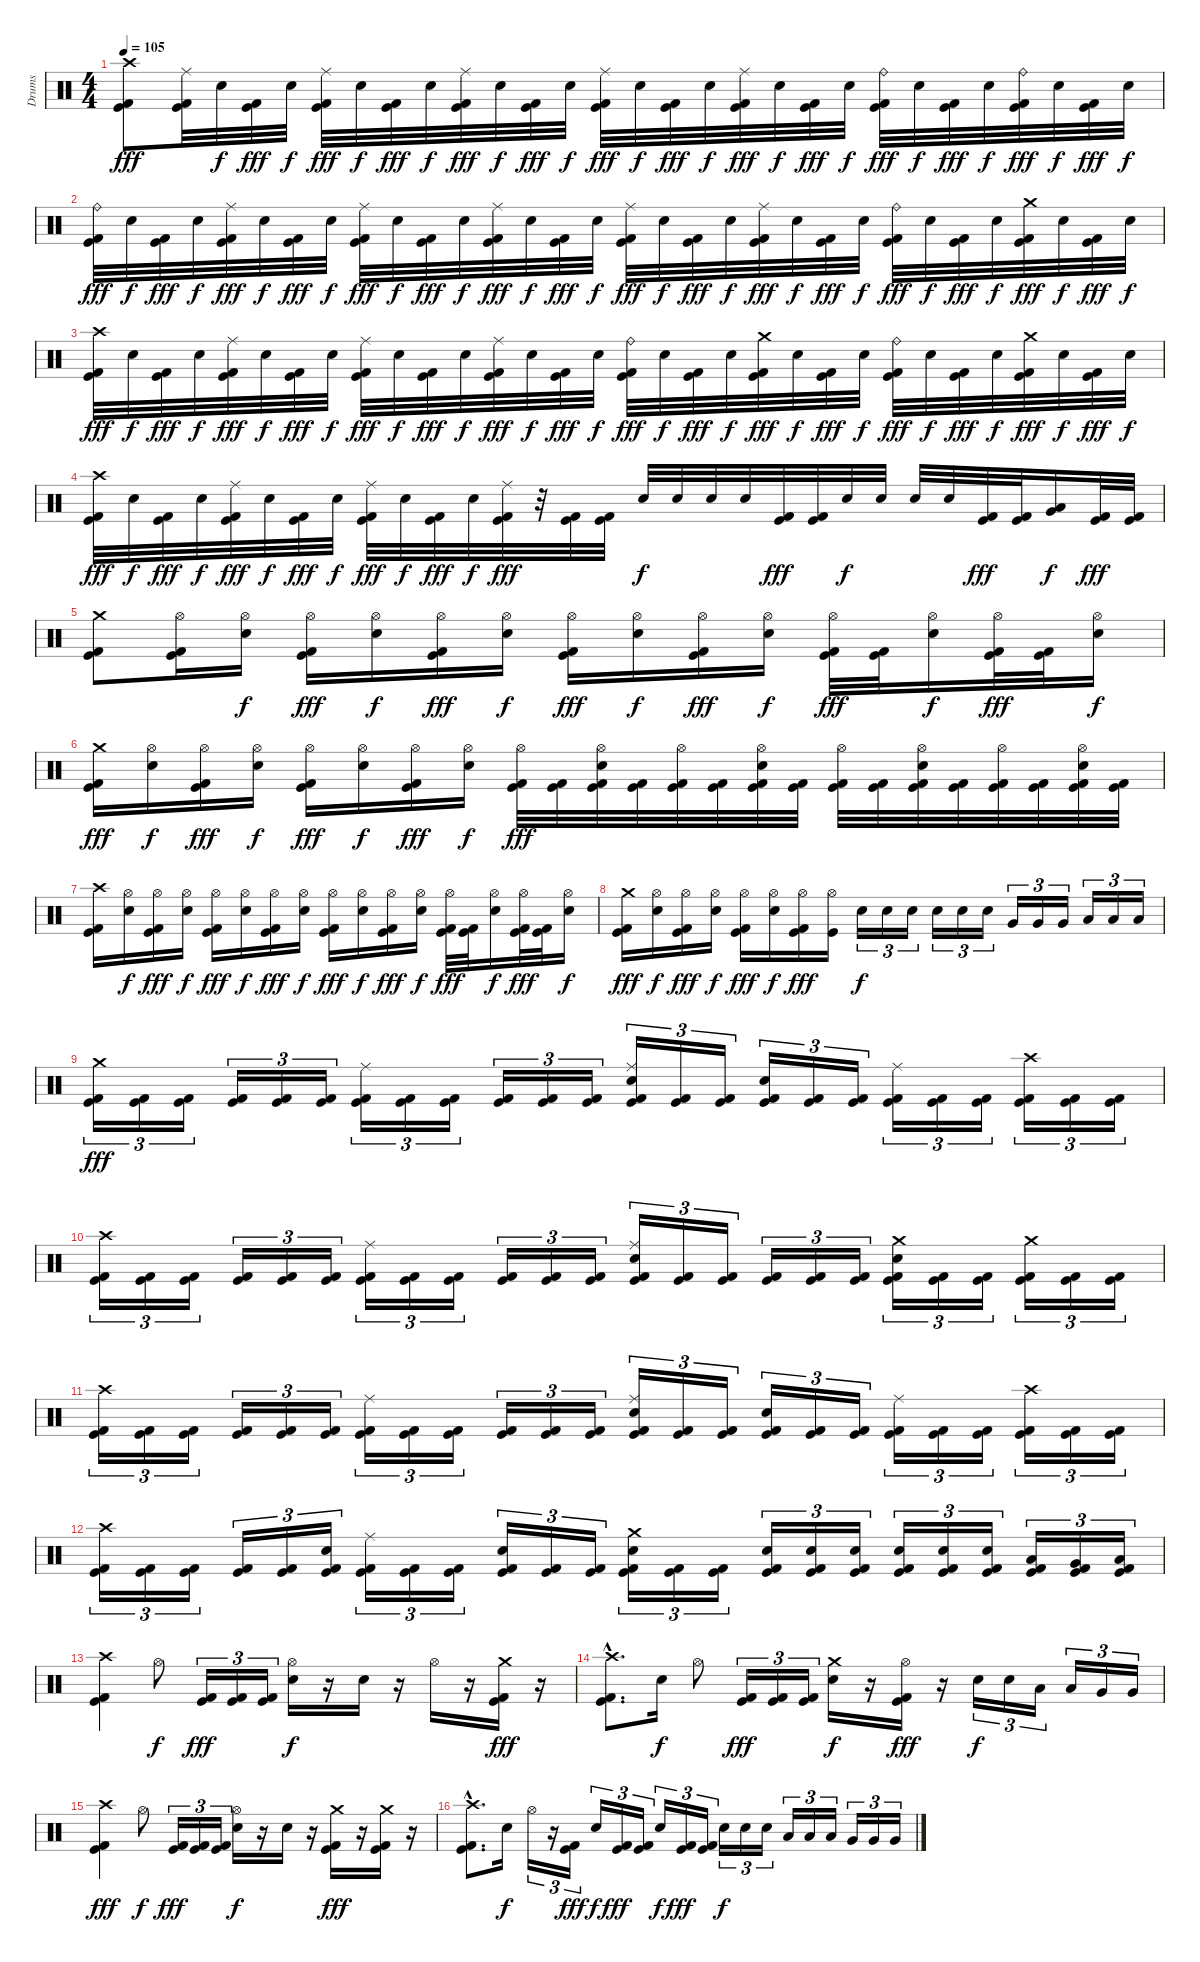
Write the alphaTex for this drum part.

\track ("Drums" "Drums") {instrument percussion}
\staff {score}
\articulation defaults
\ts (4 4)
\tempo 105
\clef neutral
\ks c
("Crash high (hit)" "Kick (hit)" "Kick (hit) 2").8{dy fff} ("Ride (middle)" "Kick (hit)" "Kick (hit) 2").32 "Electric Snare (hit)".32{dy f} ("Kick (hit)" "Kick (hit) 2").32{dy fff} "Electric Snare (hit)".32{dy f} ("Ride (middle)" "Kick (hit)" "Kick (hit) 2").32{dy fff} "Electric Snare (hit)".32{dy f} ("Kick (hit)" "Kick (hit) 2").32{dy fff} "Electric Snare (hit)".32{dy f} ("Ride (middle)" "Kick (hit)" "Kick (hit) 2").32{dy fff} "Electric Snare (hit)".32{dy f} ("Kick (hit)" "Kick (hit) 2").32{dy fff} "Electric Snare (hit)".32{dy f} ("Ride (middle)" "Kick (hit)" "Kick (hit) 2").32{dy fff} "Electric Snare (hit)".32{dy f} ("Kick (hit)" "Kick (hit) 2").32{dy fff} "Electric Snare (hit)".32{dy f} ("Ride (middle)" "Kick (hit)" "Kick (hit) 2").32{dy fff} "Electric Snare (hit)".32{dy f} ("Kick (hit)" "Kick (hit) 2").32{dy fff} "Electric Snare (hit)".32{dy f} ("Ride (bell)" "Kick (hit)" "Kick (hit) 2").32{dy fff} "Electric Snare (hit)".32{dy f} ("Kick (hit)" "Kick (hit) 2").32{dy fff} "Electric Snare (hit)".32{dy f} ("Ride (bell)" "Kick (hit)" "Kick (hit) 2").32{dy fff} "Electric Snare (hit)".32{dy f} ("Kick (hit)" "Kick (hit) 2").32{dy fff} "Electric Snare (hit)".32{dy f} |
("Ride (bell)" "Kick (hit)" "Kick (hit) 2").32{dy fff} "Electric Snare (hit)".32{dy f} ("Kick (hit)" "Kick (hit) 2").32{dy fff} "Electric Snare (hit)".32{dy f} ("Ride (middle)" "Kick (hit)" "Kick (hit) 2").32{dy fff} "Electric Snare (hit)".32{dy f} ("Kick (hit)" "Kick (hit) 2").32{dy fff} "Electric Snare (hit)".32{dy f} ("Ride (middle)" "Kick (hit)" "Kick (hit) 2").32{dy fff} "Electric Snare (hit)".32{dy f} ("Kick (hit)" "Kick (hit) 2").32{dy fff} "Electric Snare (hit)".32{dy f} ("Ride (middle)" "Kick (hit)" "Kick (hit) 2").32{dy fff} "Electric Snare (hit)".32{dy f} ("Kick (hit)" "Kick (hit) 2").32{dy fff} "Electric Snare (hit)".32{dy f} ("Ride (middle)" "Kick (hit)" "Kick (hit) 2").32{dy fff} "Electric Snare (hit)".32{dy f} ("Kick (hit)" "Kick (hit) 2").32{dy fff} "Electric Snare (hit)".32{dy f} ("Ride (middle)" "Kick (hit)" "Kick (hit) 2").32{dy fff} "Electric Snare (hit)".32{dy f} ("Kick (hit)" "Kick (hit) 2").32{dy fff} "Electric Snare (hit)".32{dy f} ("Ride (bell)" "Kick (hit)" "Kick (hit) 2").32{dy fff} "Electric Snare (hit)".32{dy f} ("Kick (hit)" "Kick (hit) 2").32{dy fff} "Electric Snare (hit)".32{dy f} ("Crash medium (hit)" "Kick (hit)" "Kick (hit) 2").32{dy fff} "Electric Snare (hit)".32{dy f} ("Kick (hit)" "Kick (hit) 2").32{dy fff} "Electric Snare (hit)".32{dy f} |
("Crash high (hit)" "Kick (hit)" "Kick (hit) 2").32{dy fff} "Electric Snare (hit)".32{dy f} ("Kick (hit)" "Kick (hit) 2").32{dy fff} "Electric Snare (hit)".32{dy f} ("Ride (middle)" "Kick (hit)" "Kick (hit) 2").32{dy fff} "Electric Snare (hit)".32{dy f} ("Kick (hit)" "Kick (hit) 2").32{dy fff} "Electric Snare (hit)".32{dy f} ("Ride (middle)" "Kick (hit)" "Kick (hit) 2").32{dy fff} "Electric Snare (hit)".32{dy f} ("Kick (hit)" "Kick (hit) 2").32{dy fff} "Electric Snare (hit)".32{dy f} ("Ride (middle)" "Kick (hit)" "Kick (hit) 2").32{dy fff} "Electric Snare (hit)".32{dy f} ("Kick (hit)" "Kick (hit) 2").32{dy fff} "Electric Snare (hit)".32{dy f} ("Ride (bell)" "Kick (hit)" "Kick (hit) 2").32{dy fff} "Electric Snare (hit)".32{dy f} ("Kick (hit)" "Kick (hit) 2").32{dy fff} "Electric Snare (hit)".32{dy f} ("Crash medium (hit)" "Kick (hit)" "Kick (hit) 2").32{dy fff} "Electric Snare (hit)".32{dy f} ("Kick (hit)" "Kick (hit) 2").32{dy fff} "Electric Snare (hit)".32{dy f} ("Ride (bell)" "Kick (hit)" "Kick (hit) 2").32{dy fff} "Electric Snare (hit)".32{dy f} ("Kick (hit)" "Kick (hit) 2").32{dy fff} "Electric Snare (hit)".32{dy f} ("Crash medium (hit)" "Kick (hit)" "Kick (hit) 2").32{dy fff} "Electric Snare (hit)".32{dy f} ("Kick (hit)" "Kick (hit) 2").32{dy fff} "Electric Snare (hit)".32{dy f} |
("Crash high (hit)" "Kick (hit)" "Kick (hit) 2").32{dy fff} "Electric Snare (hit)".32{dy f} ("Kick (hit)" "Kick (hit) 2").32{dy fff} "Electric Snare (hit)".32{dy f} ("Ride (middle)" "Kick (hit)" "Kick (hit) 2").32{dy fff} "Electric Snare (hit)".32{dy f} ("Kick (hit)" "Kick (hit) 2").32{dy fff} "Electric Snare (hit)".32{dy f} ("Ride (middle)" "Kick (hit)" "Kick (hit) 2").32{dy fff} "Electric Snare (hit)".32{dy f} ("Kick (hit)" "Kick (hit) 2").32{dy fff} "Electric Snare (hit)".32{dy f} ("Ride (middle)" "Kick (hit)" "Kick (hit) 2").32{dy fff} r.32 ("Kick (hit)" "Kick (hit) 2").32 ("Kick (hit)" "Kick (hit) 2").32 "Electric Snare (hit)".32{dy f} "Electric Snare (hit)".32 "Electric Snare (hit)".32 "Electric Snare (hit)".32 ("Kick (hit)" "Kick (hit) 2").32{dy fff} ("Kick (hit)" "Kick (hit) 2").32 "Electric Snare (hit)".32{dy f} "Electric Snare (hit)".32 "Electric Snare (hit)".32 "Electric Snare (hit)".32 ("Kick (hit)" "Kick (hit) 2").32{dy fff} ("Kick (hit)" "Kick (hit) 2").32 ("Very Low Tom (hit)" "Low Floor Tom (hit)").16{bu 60 dy f} ("Kick (hit)" "Kick (hit) 2").32{dy fff} ("Kick (hit)" "Kick (hit) 2").32 |
("Crash medium (hit)" "Kick (hit)" "Kick (hit) 2").8 ("Hi-Hat (open)" "Kick (hit)" "Kick (hit) 2").16 ("Hi-Hat (open)" "Electric Snare (hit)").16{dy f} ("Hi-Hat (open)" "Kick (hit)" "Kick (hit) 2").16{dy fff} ("Hi-Hat (open)" "Electric Snare (hit)").16{dy f} ("Hi-Hat (open)" "Kick (hit)" "Kick (hit) 2").16{dy fff} ("Hi-Hat (open)" "Electric Snare (hit)").16{dy f} ("Hi-Hat (open)" "Kick (hit)" "Kick (hit) 2").16{dy fff} ("Hi-Hat (open)" "Electric Snare (hit)").16{dy f} ("Hi-Hat (open)" "Kick (hit)" "Kick (hit) 2").16{dy fff} ("Hi-Hat (open)" "Electric Snare (hit)").16{dy f} ("Hi-Hat (open)" "Kick (hit)" "Kick (hit) 2").32{dy fff} ("Kick (hit)" "Kick (hit) 2").32 ("Hi-Hat (open)" "Electric Snare (hit)").16{dy f} ("Hi-Hat (open)" "Kick (hit)" "Kick (hit) 2").32{dy fff} ("Kick (hit)" "Kick (hit) 2").32 ("Hi-Hat (open)" "Electric Snare (hit)").16{dy f} |
("Crash medium (hit)" "Kick (hit)" "Kick (hit) 2").16{dy fff} ("Hi-Hat (open)" "Electric Snare (hit)").16{dy f} ("Hi-Hat (open)" "Kick (hit)" "Kick (hit) 2").16{dy fff} ("Hi-Hat (open)" "Electric Snare (hit)").16{dy f} ("Hi-Hat (open)" "Kick (hit)" "Kick (hit) 2").16{dy fff} ("Hi-Hat (open)" "Electric Snare (hit)").16{dy f} ("Hi-Hat (open)" "Kick (hit)" "Kick (hit) 2").16{dy fff} ("Hi-Hat (open)" "Electric Snare (hit)").16{dy f} ("Hi-Hat (open)" "Kick (hit)" "Kick (hit) 2").32{dy fff} ("Kick (hit)" "Kick (hit) 2").32 ("Hi-Hat (open)" "Electric Snare (hit)" "Kick (hit)" "Kick (hit) 2").32 ("Kick (hit)" "Kick (hit) 2").32 ("Hi-Hat (open)" "Kick (hit)" "Kick (hit) 2").32 ("Kick (hit)" "Kick (hit) 2").32 ("Hi-Hat (open)" "Electric Snare (hit)" "Kick (hit)" "Kick (hit) 2").32 ("Kick (hit)" "Kick (hit) 2").32 ("Hi-Hat (open)" "Kick (hit)" "Kick (hit) 2").32 ("Kick (hit)" "Kick (hit) 2").32 ("Hi-Hat (open)" "Electric Snare (hit)" "Kick (hit)" "Kick (hit) 2").32 ("Kick (hit)" "Kick (hit) 2").32 ("Hi-Hat (open)" "Kick (hit)" "Kick (hit) 2").32 ("Kick (hit)" "Kick (hit) 2").32 ("Hi-Hat (open)" "Electric Snare (hit)" "Kick (hit)" "Kick (hit) 2").32 ("Kick (hit)" "Kick (hit) 2").32 |
("Crash high (hit)" "Kick (hit)" "Kick (hit) 2").16 ("Hi-Hat (open)" "Electric Snare (hit)").16{dy f} ("Hi-Hat (open)" "Kick (hit)" "Kick (hit) 2").16{dy fff} ("Hi-Hat (open)" "Electric Snare (hit)").16{dy f} ("Hi-Hat (open)" "Kick (hit)" "Kick (hit) 2").16{dy fff} ("Hi-Hat (open)" "Electric Snare (hit)").16{dy f} ("Hi-Hat (open)" "Kick (hit)" "Kick (hit) 2").16{dy fff} ("Hi-Hat (open)" "Electric Snare (hit)").16{dy f} ("Hi-Hat (open)" "Kick (hit)" "Kick (hit) 2").16{dy fff} ("Hi-Hat (open)" "Electric Snare (hit)").16{dy f} ("Hi-Hat (open)" "Kick (hit)" "Kick (hit) 2").16{dy fff} ("Hi-Hat (open)" "Electric Snare (hit)").16{dy f} ("Hi-Hat (open)" "Kick (hit)" "Kick (hit) 2").32{dy fff} ("Kick (hit)" "Kick (hit) 2").32 ("Hi-Hat (open)" "Electric Snare (hit)").16{dy f} ("Hi-Hat (open)" "Kick (hit)" "Kick (hit) 2").32{dy fff} ("Kick (hit)" "Kick (hit) 2").32 ("Hi-Hat (open)" "Electric Snare (hit)").16{dy f} |
("Crash medium (hit)" "Kick (hit)" "Kick (hit) 2").16{dy fff} ("Hi-Hat (open)" "Electric Snare (hit)").16{dy f} ("Hi-Hat (open)" "Kick (hit)" "Kick (hit) 2").16{dy fff} ("Hi-Hat (open)" "Electric Snare (hit)").16{dy f} ("Hi-Hat (open)" "Kick (hit)" "Kick (hit) 2").16{dy fff} ("Hi-Hat (open)" "Electric Snare (hit)").16{dy f} ("Hi-Hat (open)" "Kick (hit)" "Kick (hit) 2").16{dy fff} ("Kick (hit)" "Hi-Hat (open)").16 "Electric Snare (hit)".16{tu (3 2) dy f} "Electric Snare (hit)".16{tu (3 2)} "Electric Snare (hit)".16{tu (3 2)} "Electric Snare (hit)".16{tu (3 2)} "Electric Snare (hit)".16{tu (3 2)} "Electric Snare (hit)".16{tu (3 2)} "Very Low Tom (hit)".16{tu (3 2)} "Very Low Tom (hit)".16{tu (3 2)} "Very Low Tom (hit)".16{tu (3 2)} "Low Floor Tom (hit)".16{tu (3 2)} "Low Floor Tom (hit)".16{tu (3 2)} "Low Floor Tom (hit)".16{tu (3 2)} |
("Crash medium (hit)" "Kick (hit)" "Kick (hit) 2").16{tu (3 2) dy fff} ("Kick (hit)" "Kick (hit) 2").16{tu (3 2)} ("Kick (hit)" "Kick (hit) 2").16{tu (3 2)} ("Kick (hit)" "Kick (hit) 2").16{tu (3 2)} ("Kick (hit)" "Kick (hit) 2").16{tu (3 2)} ("Kick (hit)" "Kick (hit) 2").16{tu (3 2)} ("Ride (middle)" "Kick (hit)" "Kick (hit) 2").16{tu (3 2)} ("Kick (hit)" "Kick (hit) 2").16{tu (3 2)} ("Kick (hit)" "Kick (hit) 2").16{tu (3 2)} ("Kick (hit)" "Kick (hit) 2").16{tu (3 2)} ("Kick (hit)" "Kick (hit) 2").16{tu (3 2)} ("Kick (hit)" "Kick (hit) 2").16{tu (3 2)} ("Ride (middle)" "Electric Snare (hit)" "Kick (hit)" "Kick (hit) 2").16{tu (3 2)} ("Kick (hit)" "Kick (hit) 2").16{tu (3 2)} ("Kick (hit)" "Kick (hit) 2").16{tu (3 2)} ("Electric Snare (hit)" "Kick (hit)" "Kick (hit) 2").16{tu (3 2)} ("Kick (hit)" "Kick (hit) 2").16{tu (3 2)} ("Kick (hit)" "Kick (hit) 2").16{tu (3 2)} ("Ride (middle)" "Kick (hit)" "Kick (hit) 2").16{tu (3 2)} ("Kick (hit)" "Kick (hit) 2").16{tu (3 2)} ("Kick (hit)" "Kick (hit) 2").16{tu (3 2)} ("Crash high (hit)" "Kick (hit)" "Kick (hit) 2").16{tu (3 2)} ("Kick (hit)" "Kick (hit) 2").16{tu (3 2)} ("Kick (hit)" "Kick (hit) 2").16{tu (3 2)} |
("Crash high (hit)" "Kick (hit)" "Kick (hit) 2").16{tu (3 2)} ("Kick (hit)" "Kick (hit) 2").16{tu (3 2)} ("Kick (hit)" "Kick (hit) 2").16{tu (3 2)} ("Kick (hit)" "Kick (hit) 2").16{tu (3 2)} ("Kick (hit)" "Kick (hit) 2").16{tu (3 2)} ("Kick (hit)" "Kick (hit) 2").16{tu (3 2)} ("Ride (middle)" "Kick (hit)" "Kick (hit) 2").16{tu (3 2)} ("Kick (hit)" "Kick (hit) 2").16{tu (3 2)} ("Kick (hit)" "Kick (hit) 2").16{tu (3 2)} ("Kick (hit)" "Kick (hit) 2").16{tu (3 2)} ("Kick (hit)" "Kick (hit) 2").16{tu (3 2)} ("Kick (hit)" "Kick (hit) 2").16{tu (3 2)} ("Ride (middle)" "Electric Snare (hit)" "Kick (hit)" "Kick (hit) 2").16{tu (3 2)} ("Kick (hit)" "Kick (hit) 2").16{tu (3 2)} ("Kick (hit)" "Kick (hit) 2").16{tu (3 2)} ("Kick (hit)" "Kick (hit) 2").16{tu (3 2)} ("Kick (hit)" "Kick (hit) 2").16{tu (3 2)} ("Kick (hit)" "Kick (hit) 2").16{tu (3 2)} ("Crash medium (hit)" "Electric Snare (hit)" "Kick (hit)" "Kick (hit) 2").16{tu (3 2)} ("Kick (hit)" "Kick (hit) 2").16{tu (3 2)} ("Kick (hit)" "Kick (hit) 2").16{tu (3 2)} ("Crash medium (hit)" "Kick (hit)" "Kick (hit) 2").16{tu (3 2)} ("Kick (hit)" "Kick (hit) 2").16{tu (3 2)} ("Kick (hit)" "Kick (hit) 2").16{tu (3 2)} |
("Crash high (hit)" "Kick (hit)" "Kick (hit) 2").16{tu (3 2)} ("Kick (hit)" "Kick (hit) 2").16{tu (3 2)} ("Kick (hit)" "Kick (hit) 2").16{tu (3 2)} ("Kick (hit)" "Kick (hit) 2").16{tu (3 2)} ("Kick (hit)" "Kick (hit) 2").16{tu (3 2)} ("Kick (hit)" "Kick (hit) 2").16{tu (3 2)} ("Ride (middle)" "Kick (hit)" "Kick (hit) 2").16{tu (3 2)} ("Kick (hit)" "Kick (hit) 2").16{tu (3 2)} ("Kick (hit)" "Kick (hit) 2").16{tu (3 2)} ("Kick (hit)" "Kick (hit) 2").16{tu (3 2)} ("Kick (hit)" "Kick (hit) 2").16{tu (3 2)} ("Kick (hit)" "Kick (hit) 2").16{tu (3 2)} ("Ride (middle)" "Electric Snare (hit)" "Kick (hit)" "Kick (hit) 2").16{tu (3 2)} ("Kick (hit)" "Kick (hit) 2").16{tu (3 2)} ("Kick (hit)" "Kick (hit) 2").16{tu (3 2)} ("Electric Snare (hit)" "Kick (hit)" "Kick (hit) 2").16{tu (3 2)} ("Kick (hit)" "Kick (hit) 2").16{tu (3 2)} ("Kick (hit)" "Kick (hit) 2").16{tu (3 2)} ("Ride (middle)" "Kick (hit)" "Kick (hit) 2").16{tu (3 2)} ("Kick (hit)" "Kick (hit) 2").16{tu (3 2)} ("Kick (hit)" "Kick (hit) 2").16{tu (3 2)} ("Crash high (hit)" "Kick (hit)" "Kick (hit) 2").16{tu (3 2)} ("Kick (hit)" "Kick (hit) 2").16{tu (3 2)} ("Kick (hit)" "Kick (hit) 2").16{tu (3 2)} |
("Crash high (hit)" "Kick (hit)" "Kick (hit) 2").16{tu (3 2)} ("Kick (hit)" "Kick (hit) 2").16{tu (3 2)} ("Kick (hit)" "Kick (hit) 2").16{tu (3 2)} ("Kick (hit)" "Kick (hit) 2").16{tu (3 2)} ("Kick (hit)" "Kick (hit) 2").16{tu (3 2)} ("Electric Snare (hit)" "Kick (hit)" "Kick (hit) 2").16{tu (3 2)} ("Ride (middle)" "Kick (hit)" "Kick (hit) 2").16{tu (3 2)} ("Kick (hit)" "Kick (hit) 2").16{tu (3 2)} ("Kick (hit)" "Kick (hit) 2").16{tu (3 2)} ("Electric Snare (hit)" "Kick (hit)" "Kick (hit) 2").16{tu (3 2)} ("Kick (hit)" "Kick (hit) 2").16{tu (3 2)} ("Kick (hit)" "Kick (hit) 2").16{tu (3 2)} ("Crash medium (hit)" "Electric Snare (hit)" "Kick (hit)" "Kick (hit) 2").16{tu (3 2)} ("Kick (hit)" "Kick (hit) 2").16{tu (3 2)} ("Kick (hit)" "Kick (hit) 2").16{tu (3 2)} ("Electric Snare (hit)" "Kick (hit)" "Kick (hit) 2").16{tu (3 2)} ("Electric Snare (hit)" "Kick (hit)" "Kick (hit) 2").16{tu (3 2)} ("Electric Snare (hit)" "Kick (hit)" "Kick (hit) 2").16{tu (3 2)} ("Electric Snare (hit)" "Kick (hit)" "Kick (hit) 2").16{tu (3 2)} ("Electric Snare (hit)" "Kick (hit)" "Kick (hit) 2").16{tu (3 2)} ("Electric Snare (hit)" "Kick (hit)" "Kick (hit) 2").16{tu (3 2)} ("Low Tom (hit)" "Kick (hit)" "Kick (hit) 2").16{tu (3 2)} ("Very Low Tom (hit)" "Kick (hit)" "Kick (hit) 2").16{tu (3 2)} ("Low Floor Tom (hit)" "Kick (hit)" "Kick (hit) 2").16{tu (3 2)} |
("Crash high (hit)" "Kick (hit)" "Kick (hit) 2").4 "Hi-Hat (open)".8{dy f} ("Kick (hit)" "Kick (hit) 2").16{tu (3 2) dy fff} ("Kick (hit)" "Kick (hit) 2").16{tu (3 2)} ("Kick (hit)" "Kick (hit) 2").16{tu (3 2)} ("Hi-Hat (open)" "Electric Snare (hit)").16{dy f} r.16 "Electric Snare (hit)".16 r.16 "Hi-Hat (open)".16 r.16 ("Crash medium (hit)" "Kick (hit)" "Kick (hit) 2").16{dy fff} r.16 |
("Crash high (hit)"{hac} "Kick (hit)"{hac} "Kick (hit) 2"{hac}).8{d} "Electric Snare (hit)".16{dy f} "Hi-Hat (open)".8 ("Kick (hit)" "Kick (hit) 2").16{tu (3 2) dy fff} ("Kick (hit)" "Kick (hit) 2").16{tu (3 2)} ("Kick (hit)" "Kick (hit) 2").16{tu (3 2)} ("Crash medium (hit)" "Electric Snare (hit)").16{dy f} r.16 ("Hi-Hat (open)" "Kick (hit)" "Kick (hit) 2").16{dy fff} r.16 "Electric Snare (hit)".16{tu (3 2) dy f} "Electric Snare (hit)".16{tu (3 2)} "Low Tom (hit)".16{tu (3 2)} "Low Tom (hit)".16{tu (3 2)} "Very Low Tom (hit)".16{tu (3 2)} "Very Low Tom (hit)".16{tu (3 2)} |
("Crash high (hit)" "Kick (hit)" "Kick (hit) 2").4{dy fff} "Hi-Hat (open)".8{dy f} ("Kick (hit)" "Kick (hit) 2").16{tu (3 2) dy fff} ("Kick (hit)" "Kick (hit) 2").16{tu (3 2)} ("Kick (hit)" "Kick (hit) 2").16{tu (3 2)} ("Hi-Hat (open)" "Electric Snare (hit)").16{dy f} r.16 "Electric Snare (hit)".16 r.16 ("Crash medium (hit)" "Kick (hit)" "Kick (hit) 2").16{dy fff} r.16 ("Crash medium (hit)" "Kick (hit)" "Kick (hit) 2").16 r.16 |
("Crash high (hit)"{hac} "Kick (hit)"{hac} "Kick (hit) 2"{hac}).8{d} "Electric Snare (hit)".16{dy f} "Hi-Hat (open)".16{tu (3 2)} r.16{tu (3 2)} ("Kick (hit)" "Kick (hit) 2").16{tu (3 2) dy fff} "Electric Snare (hit)".16{tu (3 2) dy f} ("Kick (hit)" "Kick (hit) 2").16{tu (3 2) dy fff} ("Kick (hit)" "Kick (hit) 2").16{tu (3 2)} "Electric Snare (hit)".16{tu (3 2) dy f} ("Kick (hit)" "Kick (hit) 2").16{tu (3 2) dy fff} ("Kick (hit)" "Kick (hit) 2").16{tu (3 2)} "Electric Snare (hit)".16{tu (3 2) dy f} "Electric Snare (hit)".16{tu (3 2)} "Electric Snare (hit)".16{tu (3 2)} "Low Tom (hit)".16{tu (3 2)} "Low Tom (hit)".16{tu (3 2)} "Low Tom (hit)".16{tu (3 2)} "Very Low Tom (hit)".16{tu (3 2)} "Very Low Tom (hit)".16{tu (3 2)} "Very Low Tom (hit)".16{tu (3 2)}
